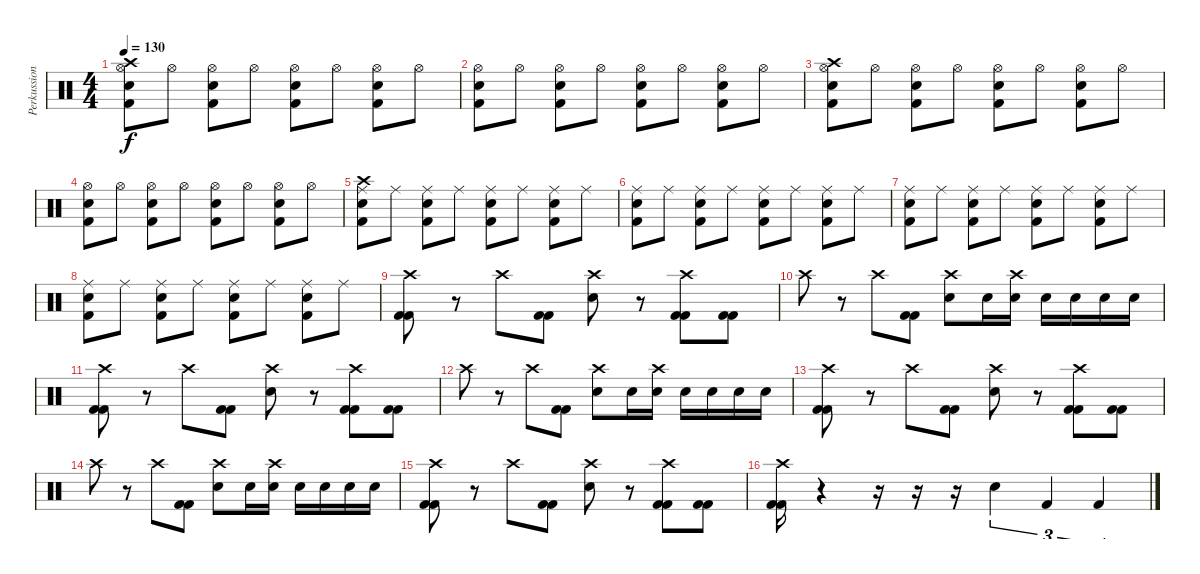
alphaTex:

\track ("Perkussion" "Perkussion") {instrument percussion}
\staff {score}
\articulation defaults
\ts (4 4)
\tempo 130
\clef neutral
\ks c
("Hi-Hat (open)" "Crash high (hit)" "Electric Snare (hit)" "Kick (hit) 2").8{dy f} "Hi-Hat (open)".8 ("Hi-Hat (open)" "Electric Snare (hit)" "Kick (hit) 2").8 "Hi-Hat (open)".8 ("Hi-Hat (open)" "Electric Snare (hit)" "Kick (hit) 2").8 "Hi-Hat (open)".8 ("Hi-Hat (open)" "Electric Snare (hit)" "Kick (hit) 2").8 "Hi-Hat (open)".8 |
("Hi-Hat (open)" "Electric Snare (hit)" "Kick (hit) 2").8 "Hi-Hat (open)".8 ("Hi-Hat (open)" "Electric Snare (hit)" "Kick (hit) 2").8 "Hi-Hat (open)".8 ("Hi-Hat (open)" "Electric Snare (hit)" "Kick (hit) 2").8 "Hi-Hat (open)".8 ("Hi-Hat (open)" "Electric Snare (hit)" "Kick (hit) 2").8 "Hi-Hat (open)".8 |
("Hi-Hat (open)" "Crash high (hit)" "Electric Snare (hit)" "Kick (hit) 2").8 "Hi-Hat (open)".8 ("Hi-Hat (open)" "Electric Snare (hit)" "Kick (hit) 2").8 "Hi-Hat (open)".8 ("Hi-Hat (open)" "Electric Snare (hit)" "Kick (hit) 2").8 "Hi-Hat (open)".8 ("Hi-Hat (open)" "Electric Snare (hit)" "Kick (hit) 2").8 "Hi-Hat (open)".8 |
("Hi-Hat (open)" "Electric Snare (hit)" "Kick (hit) 2").8 "Hi-Hat (open)".8 ("Hi-Hat (open)" "Electric Snare (hit)" "Kick (hit) 2").8 "Hi-Hat (open)".8 ("Hi-Hat (open)" "Electric Snare (hit)" "Kick (hit) 2").8 "Hi-Hat (open)".8 ("Hi-Hat (open)" "Electric Snare (hit)" "Kick (hit) 2").8 "Hi-Hat (open)".8 |
("Ride (middle)" "Crash high (hit)" "Electric Snare (hit)" "Kick (hit) 2").8 "Ride (middle)".8 ("Ride (middle)" "Electric Snare (hit)" "Kick (hit) 2").8 "Ride (middle)".8 ("Ride (middle)" "Electric Snare (hit)" "Kick (hit) 2").8 "Ride (middle)".8 ("Ride (middle)" "Electric Snare (hit)" "Kick (hit) 2").8 "Ride (middle)".8 |
("Ride (middle)" "Electric Snare (hit)" "Kick (hit) 2").8 "Ride (middle)".8 ("Ride (middle)" "Electric Snare (hit)" "Kick (hit) 2").8 "Ride (middle)".8 ("Ride (middle)" "Electric Snare (hit)" "Kick (hit) 2").8 "Ride (middle)".8 ("Ride (middle)" "Electric Snare (hit)" "Kick (hit) 2").8 "Ride (middle)".8 |
("Ride (middle)" "Electric Snare (hit)" "Kick (hit) 2").8 "Ride (middle)".8 ("Ride (middle)" "Electric Snare (hit)" "Kick (hit) 2").8 "Ride (middle)".8 ("Ride (middle)" "Electric Snare (hit)" "Kick (hit) 2").8 "Ride (middle)".8 ("Ride (middle)" "Electric Snare (hit)" "Kick (hit) 2").8 "Ride (middle)".8 |
("Ride (middle)" "Electric Snare (hit)" "Kick (hit) 2").8 "Ride (middle)".8 ("Ride (middle)" "Electric Snare (hit)" "Kick (hit) 2").8 "Ride (middle)".8 ("Ride (middle)" "Electric Snare (hit)" "Kick (hit) 2").8 "Ride (middle)".8 ("Ride (middle)" "Electric Snare (hit)" "Kick (hit) 2").8 "Ride (middle)".8 |
("Crash high (hit)" "Kick (hit) 2" "Kick (hit) 2").8 r.8 "Crash high (hit)".8 ("Kick (hit) 2" "Kick (hit) 2").8 ("Crash high (hit)" "Electric Snare (hit)").8 r.8 ("Crash high (hit)" "Kick (hit) 2" "Kick (hit) 2").8 ("Kick (hit) 2" "Kick (hit) 2").8 |
"Crash high (hit)".8 r.8 "Crash high (hit)".8 ("Kick (hit) 2" "Kick (hit) 2").8 ("Crash high (hit)" "Electric Snare (hit)").8 "Electric Snare (hit)".16 ("Crash high (hit)" "Electric Snare (hit)").16 "Electric Snare (hit)".16 "Electric Snare (hit)".16 "Electric Snare (hit)".16 "Electric Snare (hit)".16 |
("Crash high (hit)" "Kick (hit) 2" "Kick (hit) 2").8 r.8 "Crash high (hit)".8 ("Kick (hit) 2" "Kick (hit) 2").8 ("Crash high (hit)" "Electric Snare (hit)").8 r.8 ("Crash high (hit)" "Kick (hit) 2" "Kick (hit) 2").8 ("Kick (hit) 2" "Kick (hit) 2").8 |
"Crash high (hit)".8 r.8 "Crash high (hit)".8 ("Kick (hit) 2" "Kick (hit) 2").8 ("Crash high (hit)" "Electric Snare (hit)").8 "Electric Snare (hit)".16 ("Crash high (hit)" "Electric Snare (hit)").16 "Electric Snare (hit)".16 "Electric Snare (hit)".16 "Electric Snare (hit)".16 "Electric Snare (hit)".16 |
("Crash high (hit)" "Kick (hit) 2" "Kick (hit) 2").8 r.8 "Crash high (hit)".8 ("Kick (hit) 2" "Kick (hit) 2").8 ("Crash high (hit)" "Electric Snare (hit)").8 r.8 ("Crash high (hit)" "Kick (hit) 2" "Kick (hit) 2").8 ("Kick (hit) 2" "Kick (hit) 2").8 |
"Crash high (hit)".8 r.8 "Crash high (hit)".8 ("Kick (hit) 2" "Kick (hit) 2").8 ("Crash high (hit)" "Electric Snare (hit)").8 "Electric Snare (hit)".16 ("Crash high (hit)" "Electric Snare (hit)").16 "Electric Snare (hit)".16 "Electric Snare (hit)".16 "Electric Snare (hit)".16 "Electric Snare (hit)".16 |
("Crash high (hit)" "Kick (hit) 2" "Kick (hit) 2").8 r.8 "Crash high (hit)".8 ("Kick (hit) 2" "Kick (hit) 2").8 ("Crash high (hit)" "Electric Snare (hit)").8 r.8 ("Crash high (hit)" "Kick (hit) 2" "Kick (hit) 2").8 ("Kick (hit) 2" "Kick (hit) 2").8 |
("Crash high (hit)" "Kick (hit) 2" "Kick (hit) 2").16 r.4 r.16 r.16 r.16 "Electric Snare (hit)".4{tu (3 2)} "Kick (hit) 2".4{tu (3 2)} "Kick (hit) 2".4{tu (3 2)}
